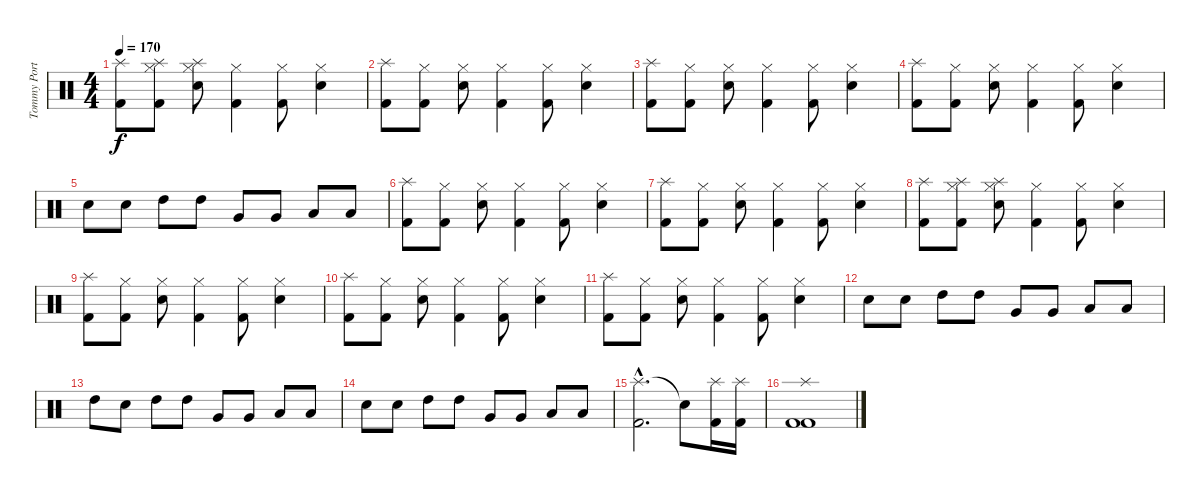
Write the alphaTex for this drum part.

\track ("Tommy Portimo" "Tommy Port") {instrument percussion}
\staff {score}
\articulation defaults
\ts (4 4)
\tempo 170
\clef neutral
\ks c
("Splash (hit)" "Kick (hit) 2").8{dy f} ("Splash (hit)" "Kick (hit) 2" "Hi-Hat (closed)").8 ("Splash (hit)" "Electric Snare (hit)" "Hi-Hat (closed)").8 ("Kick (hit) 2" "Hi-Hat (closed)").4 ("Kick (hit) 2" "Hi-Hat (closed)").8 ("Electric Snare (hit)" "Hi-Hat (closed)").4 |
("Splash (hit)" "Kick (hit) 2").8 ("Kick (hit) 2" "Hi-Hat (closed)").8 ("Electric Snare (hit)" "Hi-Hat (closed)").8 ("Kick (hit) 2" "Hi-Hat (closed)").4 ("Kick (hit) 2" "Hi-Hat (closed)").8 ("Electric Snare (hit)" "Hi-Hat (closed)").4 |
("Splash (hit)" "Kick (hit) 2").8 ("Kick (hit) 2" "Hi-Hat (closed)").8 ("Electric Snare (hit)" "Hi-Hat (closed)").8 ("Kick (hit) 2" "Hi-Hat (closed)").4 ("Kick (hit) 2" "Hi-Hat (closed)").8 ("Electric Snare (hit)" "Hi-Hat (closed)").4 |
("Splash (hit)" "Kick (hit) 2").8 ("Kick (hit) 2" "Hi-Hat (closed)").8 ("Electric Snare (hit)" "Hi-Hat (closed)").8 ("Kick (hit) 2" "Hi-Hat (closed)").4 ("Kick (hit) 2" "Hi-Hat (closed)").8 ("Electric Snare (hit)" "Hi-Hat (closed)").4 |
"Snare (hit) 2".8 "Snare (hit) 2".8 "High Tom (hit)".8 "High Tom (hit)".8 "Very Low Tom (hit)".8 "Very Low Tom (hit)".8 "Low Floor Tom (hit)".8 "Low Floor Tom (hit)".8 |
("Splash (hit)" "Kick (hit) 2").8 ("Kick (hit) 2" "Hi-Hat (closed)").8 ("Electric Snare (hit)" "Hi-Hat (closed)").8 ("Kick (hit) 2" "Hi-Hat (closed)").4 ("Kick (hit) 2" "Hi-Hat (closed)").8 ("Electric Snare (hit)" "Hi-Hat (closed)").4 |
("Splash (hit)" "Kick (hit) 2").8 ("Kick (hit) 2" "Hi-Hat (closed)").8 ("Electric Snare (hit)" "Hi-Hat (closed)").8 ("Kick (hit) 2" "Hi-Hat (closed)").4 ("Kick (hit) 2" "Hi-Hat (closed)").8 ("Electric Snare (hit)" "Hi-Hat (closed)").4 |
("Splash (hit)" "Kick (hit) 2").8 ("Splash (hit)" "Kick (hit) 2" "Hi-Hat (closed)").8 ("Splash (hit)" "Electric Snare (hit)" "Hi-Hat (closed)").8 ("Kick (hit) 2" "Hi-Hat (closed)").4 ("Kick (hit) 2" "Hi-Hat (closed)").8 ("Electric Snare (hit)" "Hi-Hat (closed)").4 |
("Splash (hit)" "Kick (hit) 2").8 ("Kick (hit) 2" "Hi-Hat (closed)").8 ("Electric Snare (hit)" "Hi-Hat (closed)").8 ("Kick (hit) 2" "Hi-Hat (closed)").4 ("Kick (hit) 2" "Hi-Hat (closed)").8 ("Electric Snare (hit)" "Hi-Hat (closed)").4 |
("Splash (hit)" "Kick (hit) 2").8 ("Kick (hit) 2" "Hi-Hat (closed)").8 ("Electric Snare (hit)" "Hi-Hat (closed)").8 ("Kick (hit) 2" "Hi-Hat (closed)").4 ("Kick (hit) 2" "Hi-Hat (closed)").8 ("Electric Snare (hit)" "Hi-Hat (closed)").4 |
("Splash (hit)" "Kick (hit) 2").8 ("Kick (hit) 2" "Hi-Hat (closed)").8 ("Electric Snare (hit)" "Hi-Hat (closed)").8 ("Kick (hit) 2" "Hi-Hat (closed)").4 ("Kick (hit) 2" "Hi-Hat (closed)").8 ("Electric Snare (hit)" "Hi-Hat (closed)").4 |
"Snare (hit) 2".8 "Snare (hit) 2".8 "High Tom (hit)".8 "High Tom (hit)".8 "Very Low Tom (hit)".8 "Very Low Tom (hit)".8 "Low Floor Tom (hit)".8 "Low Floor Tom (hit)".8 |
"High Tom (hit)".8 "Snare (hit) 2".8 "High Tom (hit)".8 "High Tom (hit)".8 "Very Low Tom (hit)".8 "Very Low Tom (hit)".8 "Low Floor Tom (hit)".8 "Low Floor Tom (hit)".8 |
"Snare (hit) 2".8 "Snare (hit) 2".8 "High Tom (hit)".8 "High Tom (hit)".8 "Very Low Tom (hit)".8 "Very Low Tom (hit)".8 "Low Floor Tom (hit)".8 "Low Floor Tom (hit)".8 |
("Splash (hit)"{hac} "Kick (hit) 2"{hac}).2{d} "Snare (hit)"{t}.8 ("Splash (hit)" "Kick (hit) 2").16 ("Splash (hit)" "Kick (hit) 2").16 |
("Splash (hit)" "Kick (hit) 2" "Kick (hit) 2").1
